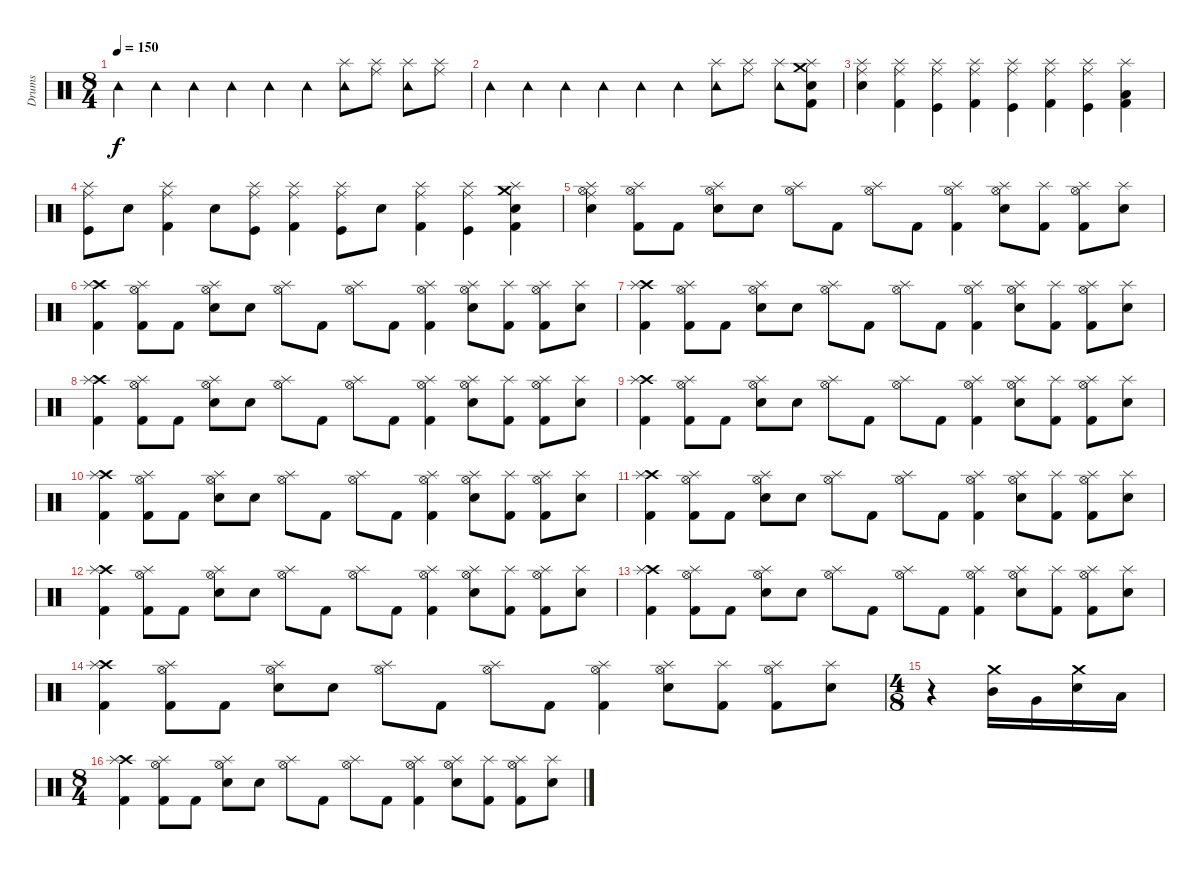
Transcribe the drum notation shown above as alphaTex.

\track ("Drums" "Drums") {instrument percussion}
\staff {score}
\articulation defaults
\ts (8 4)
\tempo 150
\clef neutral
\ks c "Tambourine (hit)".4{dy f} "Tambourine (hit)".4 "Tambourine (hit)".4 "Tambourine (hit)".4 "Tambourine (hit)".4 "Tambourine (hit)".4
("Tambourine (hit)" "Splash (hit)").8 ("Splash (hit)" "Ride (middle)").8 ("Tambourine (hit)" "Splash (hit)").8 ("Splash (hit)" "Ride (middle)").8 |
"Tambourine (hit)".4 "Tambourine (hit)".4 "Tambourine (hit)".4 "Tambourine (hit)".4 "Tambourine (hit)".4 "Tambourine (hit)".4 ("Tambourine (hit)" "Splash (hit)").8 ("Splash (hit)" "Ride (middle)").8 ("Tambourine (hit)" "Splash (hit)").8 ("Electric Snare (hit)" "Splash (hit)" "Kick (hit) 2" "Crash medium (hit)").8 |
("Ride (middle)" "Snare (hit) 2" "Splash (hit)").4 ("Ride (middle)" "Kick (hit) 2" "Splash (hit)").4 ("Ride (middle)" "Kick (hit)" "Splash (hit)").4 ("Ride (middle)" "Kick (hit) 2" "Splash (hit)").4 ("Ride (middle)" "Kick (hit)" "Splash (hit)").4 ("Ride (middle)" "Kick (hit) 2" "Splash (hit)").4 ("Ride (middle)" "Kick (hit)" "Splash (hit)").4 ("Low Floor Tom (hit)" "Kick (hit) 2" "Splash (hit)").4 |
("Ride (middle)" "Kick (hit)" "Splash (hit)").8 "Snare (hit) 2".8 ("Ride (middle)" "Kick (hit) 2" "Splash (hit)").4 "Snare (hit) 2".8 ("Ride (middle)" "Kick (hit)" "Splash (hit)").8 ("Ride (middle)" "Kick (hit) 2" "Splash (hit)").4 ("Ride (middle)" "Kick (hit)" "Splash (hit)").8 "Snare (hit) 2".8 ("Ride (middle)" "Kick (hit) 2" "Splash (hit)").4 ("Ride (middle)" "Kick (hit)" "Splash (hit)").4 ("Electric Snare (hit)" "Kick (hit) 2" "Crash medium (hit)" "Splash (hit)").4 |
("Hi-Hat (open)" "Splash (hit)" "Ride (middle)" "Snare (hit) 2").4 ("Hi-Hat (open)" "Kick (hit) 2" "Splash (hit)").8 "Kick (hit) 2".8 ("Hi-Hat (open)" "Electric Snare (hit)" "Splash (hit)").8 "Electric Snare (hit)".8 ("Hi-Hat (open)" "Splash (hit)").8 "Kick (hit) 2".8 ("Hi-Hat (open)" "Splash (hit)").8 "Kick (hit) 2".8 ("Hi-Hat (open)" "Kick (hit) 2" "Splash (hit)").4 ("Hi-Hat (open)" "Electric Snare (hit)" "Splash (hit)").8 ("Kick (hit) 2" "Splash (hit)").8 ("Hi-Hat (open)" "Kick (hit) 2" "Splash (hit)").8 ("Electric Snare (hit)" "Splash (hit)").8 |
("Crash high (hit)" "Kick (hit) 2" "Splash (hit)").4 ("Hi-Hat (open)" "Kick (hit) 2" "Splash (hit)").8 "Kick (hit) 2".8 ("Hi-Hat (open)" "Electric Snare (hit)" "Splash (hit)").8 "Electric Snare (hit)".8 ("Hi-Hat (open)" "Splash (hit)").8 "Kick (hit) 2".8 ("Hi-Hat (open)" "Splash (hit)").8 "Kick (hit) 2".8 ("Hi-Hat (open)" "Kick (hit) 2" "Splash (hit)").4 ("Hi-Hat (open)" "Electric Snare (hit)" "Splash (hit)").8 ("Kick (hit) 2" "Splash (hit)").8 ("Hi-Hat (open)" "Kick (hit) 2" "Splash (hit)").8 ("Electric Snare (hit)" "Splash (hit)").8 |
("Crash high (hit)" "Kick (hit) 2" "Splash (hit)").4 ("Hi-Hat (open)" "Kick (hit) 2" "Splash (hit)").8 "Kick (hit) 2".8 ("Hi-Hat (open)" "Electric Snare (hit)" "Splash (hit)").8 "Electric Snare (hit)".8 ("Hi-Hat (open)" "Splash (hit)").8 "Kick (hit) 2".8 ("Hi-Hat (open)" "Splash (hit)").8 "Kick (hit) 2".8 ("Hi-Hat (open)" "Kick (hit) 2" "Splash (hit)").4 ("Hi-Hat (open)" "Electric Snare (hit)" "Splash (hit)").8 ("Kick (hit) 2" "Splash (hit)").8 ("Hi-Hat (open)" "Kick (hit) 2" "Splash (hit)").8 ("Electric Snare (hit)" "Splash (hit)").8 |
("Crash high (hit)" "Kick (hit) 2" "Splash (hit)").4 ("Hi-Hat (open)" "Kick (hit) 2" "Splash (hit)").8 "Kick (hit) 2".8 ("Hi-Hat (open)" "Electric Snare (hit)" "Splash (hit)").8 "Electric Snare (hit)".8 ("Hi-Hat (open)" "Splash (hit)").8 "Kick (hit) 2".8 ("Hi-Hat (open)" "Splash (hit)").8 "Kick (hit) 2".8 ("Hi-Hat (open)" "Kick (hit) 2" "Splash (hit)").4 ("Hi-Hat (open)" "Electric Snare (hit)" "Splash (hit)").8 ("Kick (hit) 2" "Splash (hit)").8 ("Hi-Hat (open)" "Kick (hit) 2" "Splash (hit)").8 ("Electric Snare (hit)" "Splash (hit)").8 |
("Crash high (hit)" "Kick (hit) 2" "Splash (hit)").4 ("Hi-Hat (open)" "Kick (hit) 2" "Splash (hit)").8 "Kick (hit) 2".8 ("Hi-Hat (open)" "Electric Snare (hit)" "Splash (hit)").8 "Electric Snare (hit)".8 ("Hi-Hat (open)" "Splash (hit)").8 "Kick (hit) 2".8 ("Hi-Hat (open)" "Splash (hit)").8 "Kick (hit) 2".8 ("Hi-Hat (open)" "Kick (hit) 2" "Splash (hit)").4 ("Hi-Hat (open)" "Electric Snare (hit)" "Splash (hit)").8 ("Kick (hit) 2" "Splash (hit)").8 ("Hi-Hat (open)" "Kick (hit) 2" "Splash (hit)").8 ("Electric Snare (hit)" "Splash (hit)").8 |
("Crash high (hit)" "Kick (hit) 2" "Splash (hit)").4 ("Hi-Hat (open)" "Kick (hit) 2" "Splash (hit)").8 "Kick (hit) 2".8 ("Hi-Hat (open)" "Electric Snare (hit)" "Splash (hit)").8 "Electric Snare (hit)".8 ("Hi-Hat (open)" "Splash (hit)").8 "Kick (hit) 2".8 ("Hi-Hat (open)" "Splash (hit)").8 "Kick (hit) 2".8 ("Hi-Hat (open)" "Kick (hit) 2" "Splash (hit)").4 ("Hi-Hat (open)" "Electric Snare (hit)" "Splash (hit)").8 ("Kick (hit) 2" "Splash (hit)").8 ("Hi-Hat (open)" "Kick (hit) 2" "Splash (hit)").8 ("Electric Snare (hit)" "Splash (hit)").8 |
("Crash high (hit)" "Kick (hit) 2" "Splash (hit)").4 ("Hi-Hat (open)" "Kick (hit) 2" "Splash (hit)").8 "Kick (hit) 2".8 ("Hi-Hat (open)" "Electric Snare (hit)" "Splash (hit)").8 "Electric Snare (hit)".8 ("Hi-Hat (open)" "Splash (hit)").8 "Kick (hit) 2".8 ("Hi-Hat (open)" "Splash (hit)").8 "Kick (hit) 2".8 ("Hi-Hat (open)" "Kick (hit) 2" "Splash (hit)").4 ("Hi-Hat (open)" "Electric Snare (hit)" "Splash (hit)").8 ("Kick (hit) 2" "Splash (hit)").8 ("Hi-Hat (open)" "Kick (hit) 2" "Splash (hit)").8 ("Electric Snare (hit)" "Splash (hit)").8 |
("Crash high (hit)" "Kick (hit) 2" "Splash (hit)").4 ("Hi-Hat (open)" "Kick (hit) 2" "Splash (hit)").8 "Kick (hit) 2".8 ("Hi-Hat (open)" "Electric Snare (hit)" "Splash (hit)").8 "Electric Snare (hit)".8 ("Hi-Hat (open)" "Splash (hit)").8 "Kick (hit) 2".8 ("Hi-Hat (open)" "Splash (hit)").8 "Kick (hit) 2".8 ("Hi-Hat (open)" "Kick (hit) 2" "Splash (hit)").4 ("Hi-Hat (open)" "Electric Snare (hit)" "Splash (hit)").8 ("Kick (hit) 2" "Splash (hit)").8 ("Hi-Hat (open)" "Kick (hit) 2" "Splash (hit)").8 ("Electric Snare (hit)" "Splash (hit)").8 |
("Crash high (hit)" "Kick (hit) 2" "Splash (hit)").4 ("Hi-Hat (open)" "Kick (hit) 2" "Splash (hit)").8 "Kick (hit) 2".8 ("Hi-Hat (open)" "Electric Snare (hit)" "Splash (hit)").8 "Electric Snare (hit)".8 ("Hi-Hat (open)" "Splash (hit)").8 "Kick (hit) 2".8 ("Hi-Hat (open)" "Splash (hit)").8 "Kick (hit) 2".8 ("Hi-Hat (open)" "Kick (hit) 2" "Splash (hit)").4 ("Hi-Hat (open)" "Electric Snare (hit)" "Splash (hit)").8 ("Kick (hit) 2" "Splash (hit)").8 ("Hi-Hat (open)" "Kick (hit) 2" "Splash (hit)").8 ("Electric Snare (hit)" "Splash (hit)").8 |
("Crash high (hit)" "Kick (hit) 2" "Splash (hit)").4 ("Hi-Hat (open)" "Kick (hit) 2" "Splash (hit)").8 "Kick (hit) 2".8 ("Hi-Hat (open)" "Electric Snare (hit)" "Splash (hit)").8 "Electric Snare (hit)".8 ("Hi-Hat (open)" "Splash (hit)").8 "Kick (hit) 2".8 ("Hi-Hat (open)" "Splash (hit)").8 "Kick (hit) 2".8 ("Hi-Hat (open)" "Kick (hit) 2" "Splash (hit)").4 ("Hi-Hat (open)" "Electric Snare (hit)" "Splash (hit)").8 ("Kick (hit) 2" "Splash (hit)").8 ("Hi-Hat (open)" "Kick (hit) 2" "Splash (hit)").8 ("Electric Snare (hit)" "Splash (hit)").8 |
\ts (4 8)
r.4 ("Mid Tom (hit)" "Crash medium (hit)").16 "Very Low Tom (hit)".16 ("Electric Snare (hit)" "Crash medium (hit)").16 "Low Tom (hit)".16 |
\ts (8 4)
("Crash high (hit)" "Kick (hit) 2" "Splash (hit)").4 ("Hi-Hat (open)" "Kick (hit) 2" "Splash (hit)").8 "Kick (hit) 2".8 ("Hi-Hat (open)" "Electric Snare (hit)" "Splash (hit)").8 "Electric Snare (hit)".8 ("Hi-Hat (open)" "Splash (hit)").8 "Kick (hit) 2".8 ("Hi-Hat (open)" "Splash (hit)").8 "Kick (hit) 2".8 ("Hi-Hat (open)" "Kick (hit) 2" "Splash (hit)").4 ("Hi-Hat (open)" "Electric Snare (hit)" "Splash (hit)").8 ("Kick (hit) 2" "Splash (hit)").8 ("Hi-Hat (open)" "Kick (hit) 2" "Splash (hit)").8 ("Electric Snare (hit)" "Splash (hit)").8
